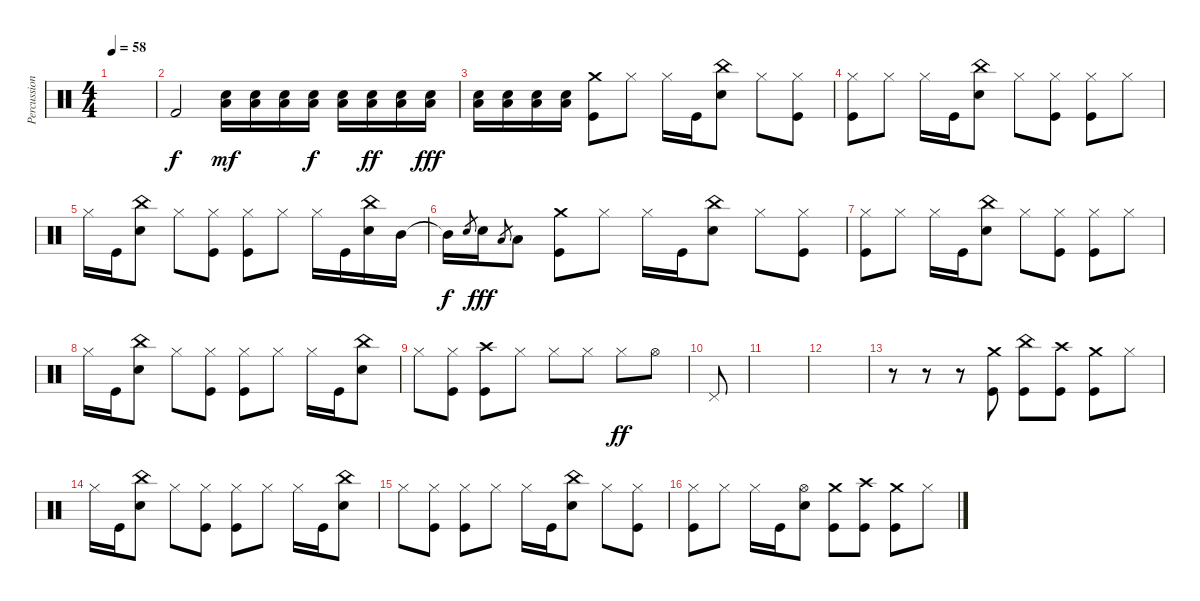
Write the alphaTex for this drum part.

\track ("Percussion" "Percussion") {instrument percussion}
\staff {score}
\articulation defaults
\ts (4 4)
\tempo 58
\clef neutral
\ks c
|
"Kick (hit) 2".2 ("Low Floor Tom (hit)" "Electric Snare (hit)").16{dy mf} ("Low Floor Tom (hit)" "Electric Snare (hit)").16 ("Low Floor Tom (hit)" "Electric Snare (hit)").16 ("Low Floor Tom (hit)" "Electric Snare (hit)").16{dy f} ("Low Floor Tom (hit)" "Electric Snare (hit)").16 ("Low Floor Tom (hit)" "Electric Snare (hit)").16{dy ff} ("Low Floor Tom (hit)" "Electric Snare (hit)").16 ("Low Floor Tom (hit)" "Electric Snare (hit)").16{dy fff} |
("Low Floor Tom (hit)" "Electric Snare (hit)").16 ("Low Floor Tom (hit)" "Electric Snare (hit)").16 ("Low Floor Tom (hit)" "Electric Snare (hit)").16 ("Low Floor Tom (hit)" "Electric Snare (hit)").16 ("Crash medium (hit)" "Kick (hit)").8 "Hi-Hat (closed)".8 "Hi-Hat (closed)".16 "Kick (hit)".16 ("China (hit)" "Electric Snare (hit)").8 "Hi-Hat (closed)".8 ("Hi-Hat (closed)" "Kick (hit)").8 |
("Hi-Hat (closed)" "Kick (hit)").8 "Hi-Hat (closed)".8 "Hi-Hat (closed)".16 "Kick (hit)".16 ("China (hit)" "Electric Snare (hit)").8 "Hi-Hat (closed)".8 ("Hi-Hat (closed)" "Kick (hit)").8 ("Hi-Hat (closed)" "Kick (hit)").8 "Hi-Hat (closed)".8 |
"Hi-Hat (closed)".16 "Kick (hit)".16 ("China (hit)" "Electric Snare (hit)").8 "Hi-Hat (closed)".8 ("Hi-Hat (closed)" "Kick (hit)").8 ("Hi-Hat (closed)" "Kick (hit)").8 "Hi-Hat (closed)".8 "Hi-Hat (closed)".16 "Kick (hit)".16 ("China (hit)" "Electric Snare (hit)").16 "Mid Tom (hit)".16 |
"Mid Tom (hit)"{t}.16{dy f} "Electric Snare (hit)".8{gr} "Electric Snare (hit)".16{dy fff} "Low Tom (hit)".8{gr} "Low Tom (hit)".8 ("Crash medium (hit)" "Kick (hit)").8 "Hi-Hat (closed)".8 "Hi-Hat (closed)".16 "Kick (hit)".16 ("China (hit)" "Electric Snare (hit)").8 "Hi-Hat (closed)".8 ("Hi-Hat (closed)" "Kick (hit)").8 |
("Hi-Hat (closed)" "Kick (hit)").8 "Hi-Hat (closed)".8 "Hi-Hat (closed)".16 "Kick (hit)".16 ("China (hit)" "Electric Snare (hit)").8 "Hi-Hat (closed)".8 ("Hi-Hat (closed)" "Kick (hit)").8 ("Hi-Hat (closed)" "Kick (hit)").8 "Hi-Hat (closed)".8 |
"Hi-Hat (closed)".16 "Kick (hit)".16 ("China (hit)" "Electric Snare (hit)").8 "Hi-Hat (closed)".8 ("Hi-Hat (closed)" "Kick (hit)").8 ("Hi-Hat (closed)" "Kick (hit)").8 "Hi-Hat (closed)".8 "Hi-Hat (closed)".16 "Kick (hit)".16 ("China (hit)" "Electric Snare (hit)").8 |
"Hi-Hat (closed)".8 ("Hi-Hat (closed)" "Kick (hit)").8 ("Crash high (hit)" "Kick (hit)").8 "Hi-Hat (closed)".8 "Hi-Hat (closed)".8 "Hi-Hat (closed)".8 "Hi-Hat (closed)".8{dy ff} "Hi-Hat (open)".8 |
"Pedal Hi-Hat (hit)".8 |
|
|
r.8 r.8 r.8 ("Crash medium (hit)" "Kick (hit)").8 ("China (hit)" "Kick (hit)").8 ("Crash high (hit)" "Kick (hit)").8 ("Crash medium (hit)" "Kick (hit)").8 "Hi-Hat (closed)".8 |
"Hi-Hat (closed)".16 "Kick (hit)".16 ("China (hit)" "Electric Snare (hit)").8 "Hi-Hat (closed)".8 ("Hi-Hat (closed)" "Kick (hit)").8 ("Hi-Hat (closed)" "Kick (hit)").8 "Hi-Hat (closed)".8 "Hi-Hat (closed)".16 "Kick (hit)".16 ("China (hit)" "Electric Snare (hit)").8 |
"Hi-Hat (closed)".8 ("Hi-Hat (closed)" "Kick (hit)").8 ("Hi-Hat (closed)" "Kick (hit)").8 "Hi-Hat (closed)".8 "Hi-Hat (closed)".16 "Kick (hit)".16 ("China (hit)" "Electric Snare (hit)").8 "Hi-Hat (closed)".8 ("Hi-Hat (closed)" "Kick (hit)").8 |
("Hi-Hat (closed)" "Kick (hit)").8 "Hi-Hat (closed)".8 "Hi-Hat (closed)".16 "Kick (hit)".16 ("Hi-Hat (open)" "Electric Snare (hit)").8 ("Crash medium (hit)" "Kick (hit)").8 ("Crash high (hit)" "Kick (hit)").8 ("Crash medium (hit)" "Kick (hit)").8 "Hi-Hat (closed)".8
